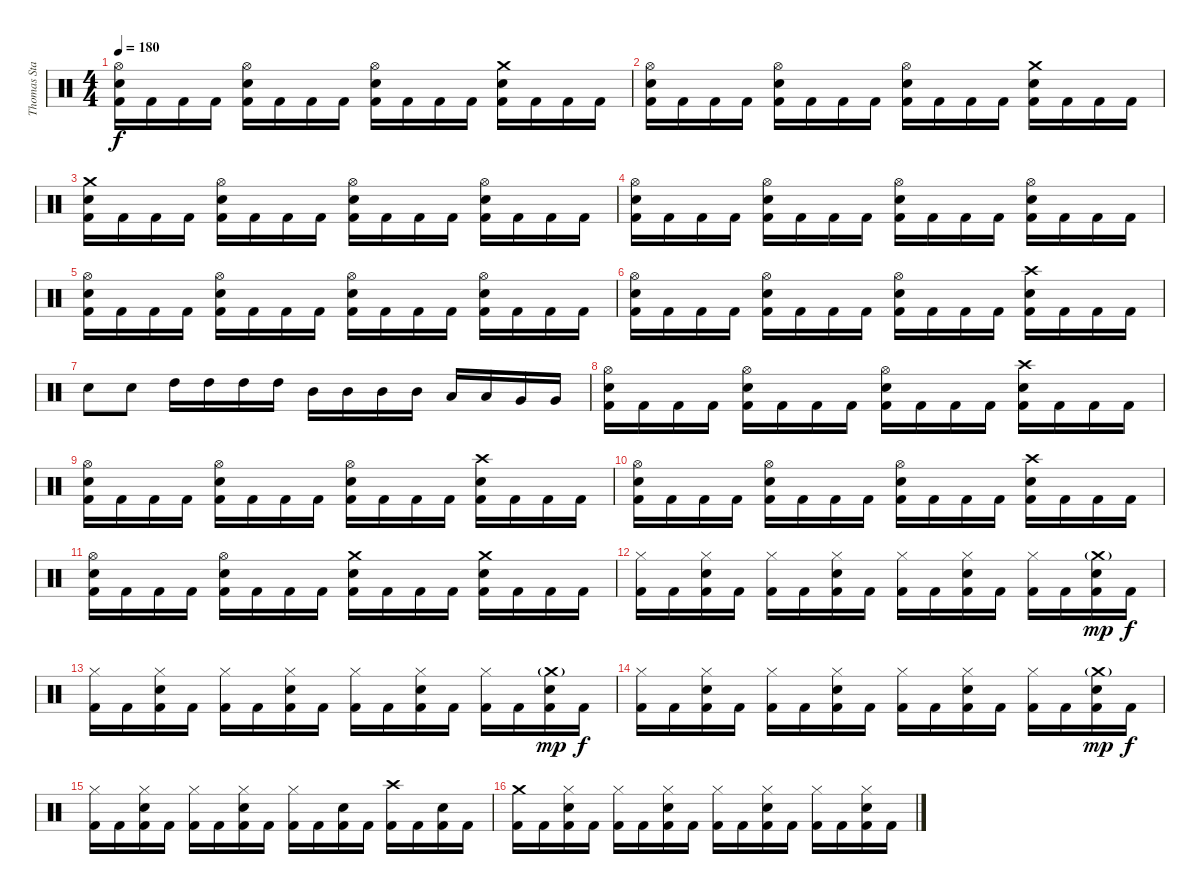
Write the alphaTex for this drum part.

\track ("Thomas Stauch" "Thomas Sta") {instrument percussion}
\staff {score}
\articulation defaults
\ts (4 4)
\tempo 180
\clef neutral
\ks c
("Hi-Hat (open)" "Electric Snare (hit)" "Kick (hit) 2").16{dy f} "Kick (hit) 2".16 "Kick (hit) 2".16 "Kick (hit) 2".16 ("Hi-Hat (open)" "Electric Snare (hit)" "Kick (hit) 2").16 "Kick (hit) 2".16 "Kick (hit) 2".16 "Kick (hit) 2".16 ("Hi-Hat (open)" "Electric Snare (hit)" "Kick (hit) 2").16 "Kick (hit) 2".16 "Kick (hit) 2".16 "Kick (hit) 2".16 ("Crash medium (hit)" "Electric Snare (hit)" "Kick (hit) 2").16 "Kick (hit) 2".16 "Kick (hit) 2".16 "Kick (hit) 2".16 |
("Hi-Hat (open)" "Electric Snare (hit)" "Kick (hit) 2").16 "Kick (hit) 2".16 "Kick (hit) 2".16 "Kick (hit) 2".16 ("Hi-Hat (open)" "Electric Snare (hit)" "Kick (hit) 2").16 "Kick (hit) 2".16 "Kick (hit) 2".16 "Kick (hit) 2".16 ("Hi-Hat (open)" "Electric Snare (hit)" "Kick (hit) 2").16 "Kick (hit) 2".16 "Kick (hit) 2".16 "Kick (hit) 2".16 ("Crash medium (hit)" "Electric Snare (hit)" "Kick (hit) 2").16 "Kick (hit) 2".16 "Kick (hit) 2".16 "Kick (hit) 2".16 |
("Crash medium (hit)" "Electric Snare (hit)" "Kick (hit) 2").16 "Kick (hit) 2".16 "Kick (hit) 2".16 "Kick (hit) 2".16 ("Hi-Hat (open)" "Electric Snare (hit)" "Kick (hit) 2").16 "Kick (hit) 2".16 "Kick (hit) 2".16 "Kick (hit) 2".16 ("Hi-Hat (open)" "Electric Snare (hit)" "Kick (hit) 2").16 "Kick (hit) 2".16 "Kick (hit) 2".16 "Kick (hit) 2".16 ("Hi-Hat (open)" "Electric Snare (hit)" "Kick (hit) 2").16 "Kick (hit) 2".16 "Kick (hit) 2".16 "Kick (hit) 2".16 |
("Hi-Hat (open)" "Electric Snare (hit)" "Kick (hit) 2").16 "Kick (hit) 2".16 "Kick (hit) 2".16 "Kick (hit) 2".16 ("Hi-Hat (open)" "Electric Snare (hit)" "Kick (hit) 2").16 "Kick (hit) 2".16 "Kick (hit) 2".16 "Kick (hit) 2".16 ("Hi-Hat (open)" "Electric Snare (hit)" "Kick (hit) 2").16 "Kick (hit) 2".16 "Kick (hit) 2".16 "Kick (hit) 2".16 ("Hi-Hat (open)" "Electric Snare (hit)" "Kick (hit) 2").16 "Kick (hit) 2".16 "Kick (hit) 2".16 "Kick (hit) 2".16 |
("Hi-Hat (open)" "Electric Snare (hit)" "Kick (hit) 2").16 "Kick (hit) 2".16 "Kick (hit) 2".16 "Kick (hit) 2".16 ("Hi-Hat (open)" "Electric Snare (hit)" "Kick (hit) 2").16 "Kick (hit) 2".16 "Kick (hit) 2".16 "Kick (hit) 2".16 ("Hi-Hat (open)" "Electric Snare (hit)" "Kick (hit) 2").16 "Kick (hit) 2".16 "Kick (hit) 2".16 "Kick (hit) 2".16 ("Hi-Hat (open)" "Electric Snare (hit)" "Kick (hit) 2").16 "Kick (hit) 2".16 "Kick (hit) 2".16 "Kick (hit) 2".16 |
("Hi-Hat (open)" "Electric Snare (hit)" "Kick (hit) 2").16 "Kick (hit) 2".16 "Kick (hit) 2".16 "Kick (hit) 2".16 ("Hi-Hat (open)" "Electric Snare (hit)" "Kick (hit) 2").16 "Kick (hit) 2".16 "Kick (hit) 2".16 "Kick (hit) 2".16 ("Hi-Hat (open)" "Electric Snare (hit)" "Kick (hit) 2").16 "Kick (hit) 2".16 "Kick (hit) 2".16 "Kick (hit) 2".16 ("Crash high (hit)" "Electric Snare (hit)" "Kick (hit) 2").16 "Kick (hit) 2".16 "Kick (hit) 2".16 "Kick (hit) 2".16 |
"Electric Snare (hit)".8 "Electric Snare (hit)".8 "High Tom (hit)".16 "High Tom (hit)".16 "High Tom (hit)".16 "High Tom (hit)".16 "Mid Tom (hit)".16 "Mid Tom (hit)".16 "Mid Tom (hit)".16 "Mid Tom (hit)".16 "Low Tom (hit)".16 "Low Tom (hit)".16 "Very Low Tom (hit)".16 "Very Low Tom (hit)".16 |
("Hi-Hat (open)" "Electric Snare (hit)" "Kick (hit) 2").16 "Kick (hit) 2".16 "Kick (hit) 2".16 "Kick (hit) 2".16 ("Hi-Hat (open)" "Electric Snare (hit)" "Kick (hit) 2").16 "Kick (hit) 2".16 "Kick (hit) 2".16 "Kick (hit) 2".16 ("Hi-Hat (open)" "Electric Snare (hit)" "Kick (hit) 2").16 "Kick (hit) 2".16 "Kick (hit) 2".16 "Kick (hit) 2".16 ("Crash high (hit)" "Electric Snare (hit)" "Kick (hit) 2").16 "Kick (hit) 2".16 "Kick (hit) 2".16 "Kick (hit) 2".16 |
("Hi-Hat (open)" "Electric Snare (hit)" "Kick (hit) 2").16 "Kick (hit) 2".16 "Kick (hit) 2".16 "Kick (hit) 2".16 ("Hi-Hat (open)" "Electric Snare (hit)" "Kick (hit) 2").16 "Kick (hit) 2".16 "Kick (hit) 2".16 "Kick (hit) 2".16 ("Hi-Hat (open)" "Electric Snare (hit)" "Kick (hit) 2").16 "Kick (hit) 2".16 "Kick (hit) 2".16 "Kick (hit) 2".16 ("Crash high (hit)" "Electric Snare (hit)" "Kick (hit) 2").16 "Kick (hit) 2".16 "Kick (hit) 2".16 "Kick (hit) 2".16 |
("Hi-Hat (open)" "Electric Snare (hit)" "Kick (hit) 2").16 "Kick (hit) 2".16 "Kick (hit) 2".16 "Kick (hit) 2".16 ("Hi-Hat (open)" "Electric Snare (hit)" "Kick (hit) 2").16 "Kick (hit) 2".16 "Kick (hit) 2".16 "Kick (hit) 2".16 ("Hi-Hat (open)" "Electric Snare (hit)" "Kick (hit) 2").16 "Kick (hit) 2".16 "Kick (hit) 2".16 "Kick (hit) 2".16 ("Crash high (hit)" "Electric Snare (hit)" "Kick (hit) 2").16 "Kick (hit) 2".16 "Kick (hit) 2".16 "Kick (hit) 2".16 |
("Hi-Hat (open)" "Electric Snare (hit)" "Kick (hit) 2").16 "Kick (hit) 2".16 "Kick (hit) 2".16 "Kick (hit) 2".16 ("Hi-Hat (open)" "Electric Snare (hit)" "Kick (hit) 2").16 "Kick (hit) 2".16 "Kick (hit) 2".16 "Kick (hit) 2".16 ("Crash medium (hit)" "Electric Snare (hit)" "Kick (hit) 2").16 "Kick (hit) 2".16 "Kick (hit) 2".16 "Kick (hit) 2".16 ("Crash medium (hit)" "Electric Snare (hit)" "Kick (hit) 2").16 "Kick (hit) 2".16 "Kick (hit) 2".16 "Kick (hit) 2".16 |
("Hi-Hat (closed)" "Kick (hit) 2").16 "Kick (hit) 2".16 ("Hi-Hat (closed)" "Electric Snare (hit)" "Kick (hit) 2").16 "Kick (hit) 2".16 ("Hi-Hat (closed)" "Kick (hit) 2").16 "Kick (hit) 2".16 ("Hi-Hat (closed)" "Electric Snare (hit)" "Kick (hit) 2").16 "Kick (hit) 2".16 ("Hi-Hat (closed)" "Kick (hit) 2").16 "Kick (hit) 2".16 ("Hi-Hat (closed)" "Electric Snare (hit)" "Kick (hit) 2").16 "Kick (hit) 2".16 ("Hi-Hat (closed)" "Kick (hit) 2").16 "Kick (hit) 2".16 ("Crash medium (hit)"{g} "Electric Snare (hit)" "Kick (hit) 2").16{dy mp} "Kick (hit) 2".16{dy f} |
("Hi-Hat (closed)" "Kick (hit) 2").16 "Kick (hit) 2".16 ("Hi-Hat (closed)" "Electric Snare (hit)" "Kick (hit) 2").16 "Kick (hit) 2".16 ("Hi-Hat (closed)" "Kick (hit) 2").16 "Kick (hit) 2".16 ("Hi-Hat (closed)" "Electric Snare (hit)" "Kick (hit) 2").16 "Kick (hit) 2".16 ("Hi-Hat (closed)" "Kick (hit) 2").16 "Kick (hit) 2".16 ("Hi-Hat (closed)" "Electric Snare (hit)" "Kick (hit) 2").16 "Kick (hit) 2".16 ("Hi-Hat (closed)" "Kick (hit) 2").16 "Kick (hit) 2".16 ("Crash medium (hit)"{g} "Electric Snare (hit)" "Kick (hit) 2").16{dy mp} "Kick (hit) 2".16{dy f} |
("Hi-Hat (closed)" "Kick (hit) 2").16 "Kick (hit) 2".16 ("Hi-Hat (closed)" "Electric Snare (hit)" "Kick (hit) 2").16 "Kick (hit) 2".16 ("Hi-Hat (closed)" "Kick (hit) 2").16 "Kick (hit) 2".16 ("Hi-Hat (closed)" "Electric Snare (hit)" "Kick (hit) 2").16 "Kick (hit) 2".16 ("Hi-Hat (closed)" "Kick (hit) 2").16 "Kick (hit) 2".16 ("Hi-Hat (closed)" "Electric Snare (hit)" "Kick (hit) 2").16 "Kick (hit) 2".16 ("Hi-Hat (closed)" "Kick (hit) 2").16 "Kick (hit) 2".16 ("Crash medium (hit)"{g} "Electric Snare (hit)" "Kick (hit) 2").16{dy mp} "Kick (hit) 2".16{dy f} |
("Hi-Hat (closed)" "Kick (hit) 2").16 "Kick (hit) 2".16 ("Hi-Hat (closed)" "Electric Snare (hit)" "Kick (hit) 2").16 "Kick (hit) 2".16 ("Hi-Hat (closed)" "Kick (hit) 2").16 "Kick (hit) 2".16 ("Hi-Hat (closed)" "Electric Snare (hit)" "Kick (hit) 2").16 "Kick (hit) 2".16 ("Hi-Hat (closed)" "Kick (hit) 2").16 "Kick (hit) 2".16 ("Electric Snare (hit)" "Kick (hit) 2").16 "Kick (hit) 2".16 ("Crash high (hit)" "Kick (hit) 2").16 "Kick (hit) 2".16 ("Electric Snare (hit)" "Kick (hit) 2").16 "Kick (hit) 2".16 |
("Crash medium (hit)" "Kick (hit) 2").16 "Kick (hit) 2".16 ("Hi-Hat (closed)" "Electric Snare (hit)" "Kick (hit) 2").16 "Kick (hit) 2".16 ("Hi-Hat (closed)" "Kick (hit) 2").16 "Kick (hit) 2".16 ("Hi-Hat (closed)" "Electric Snare (hit)" "Kick (hit) 2").16 "Kick (hit) 2".16 ("Hi-Hat (closed)" "Kick (hit) 2").16 "Kick (hit) 2".16 ("Hi-Hat (closed)" "Electric Snare (hit)" "Kick (hit) 2").16 "Kick (hit) 2".16 ("Hi-Hat (closed)" "Kick (hit) 2").16 "Kick (hit) 2".16 ("Hi-Hat (closed)" "Electric Snare (hit)" "Kick (hit) 2").16 "Kick (hit) 2".16
